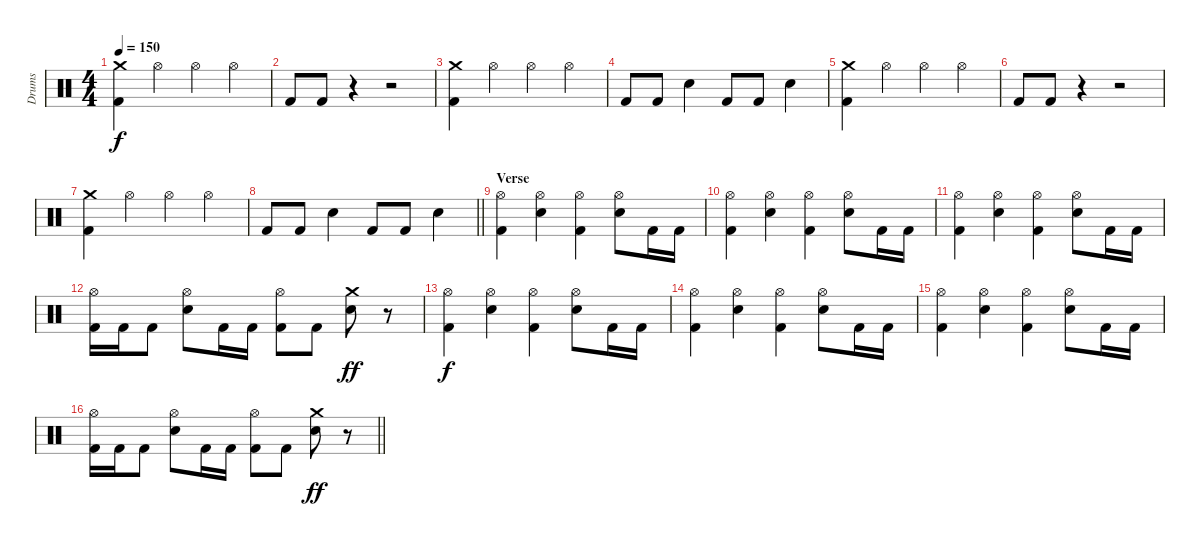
\track ("Drums" "Drums") {instrument percussion}
\staff {score}
\articulation defaults
\ts (4 4)
\tempo 150
\clef neutral
\ks c
("Crash medium (hit)" "Kick (hit) 2").4{dy f} "Hi-Hat (open)".4 "Hi-Hat (open)".4 "Hi-Hat (open)".4 |
"Kick (hit) 2".8 "Kick (hit) 2".8 r.4 r.2 |
("Crash medium (hit)" "Kick (hit) 2").4 "Hi-Hat (open)".4 "Hi-Hat (open)".4 "Hi-Hat (open)".4 |
"Kick (hit) 2".8 "Kick (hit) 2".8 "Electric Snare (hit)".4 "Kick (hit) 2".8 "Kick (hit) 2".8 "Electric Snare (hit)".4 |
("Crash medium (hit)" "Kick (hit) 2").4 "Hi-Hat (open)".4 "Hi-Hat (open)".4 "Hi-Hat (open)".4 |
"Kick (hit) 2".8 "Kick (hit) 2".8 r.4 r.2 |
("Crash medium (hit)" "Kick (hit) 2").4 "Hi-Hat (open)".4 "Hi-Hat (open)".4 "Hi-Hat (open)".4 |
\barLineRight lightlight "Kick (hit) 2".8 "Kick (hit) 2".8 "Electric Snare (hit)".4 "Kick (hit) 2".8 "Kick (hit) 2".8 "Electric Snare (hit)".4
|
\section ("" "Verse")
("Hi-Hat (open)" "Kick (hit) 2").4 ("Hi-Hat (open)" "Electric Snare (hit)").4 ("Hi-Hat (open)" "Kick (hit) 2").4 ("Hi-Hat (open)" "Electric Snare (hit)").8 "Kick (hit) 2".16 "Kick (hit) 2".16 |
("Hi-Hat (open)" "Kick (hit) 2").4 ("Hi-Hat (open)" "Electric Snare (hit)").4 ("Hi-Hat (open)" "Kick (hit) 2").4 ("Hi-Hat (open)" "Electric Snare (hit)").8 "Kick (hit) 2".16 "Kick (hit) 2".16 |
("Hi-Hat (open)" "Kick (hit) 2").4 ("Hi-Hat (open)" "Electric Snare (hit)").4 ("Hi-Hat (open)" "Kick (hit) 2").4 ("Hi-Hat (open)" "Electric Snare (hit)").8 "Kick (hit) 2".16 "Kick (hit) 2".16 |
("Hi-Hat (open)" "Kick (hit) 2").16 "Kick (hit) 2".16 "Kick (hit) 2".8 ("Hi-Hat (open)" "Electric Snare (hit)").8 "Kick (hit) 2".16 "Kick (hit) 2".16 ("Hi-Hat (open)" "Kick (hit) 2").8 "Kick (hit) 2".8 ("Crash medium (hit)" "Electric Snare (hit)").8{dy ff} r.8 |
("Hi-Hat (open)" "Kick (hit) 2").4{dy f} ("Hi-Hat (open)" "Electric Snare (hit)").4 ("Hi-Hat (open)" "Kick (hit) 2").4 ("Hi-Hat (open)" "Electric Snare (hit)").8 "Kick (hit) 2".16 "Kick (hit) 2".16 |
("Hi-Hat (open)" "Kick (hit) 2").4 ("Hi-Hat (open)" "Electric Snare (hit)").4 ("Hi-Hat (open)" "Kick (hit) 2").4 ("Hi-Hat (open)" "Electric Snare (hit)").8 "Kick (hit) 2".16 "Kick (hit) 2".16 |
("Hi-Hat (open)" "Kick (hit) 2").4 ("Hi-Hat (open)" "Electric Snare (hit)").4 ("Hi-Hat (open)" "Kick (hit) 2").4 ("Hi-Hat (open)" "Electric Snare (hit)").8 "Kick (hit) 2".16 "Kick (hit) 2".16 |
\barLineRight lightlight
("Hi-Hat (open)" "Kick (hit) 2").16 "Kick (hit) 2".16 "Kick (hit) 2".8 ("Hi-Hat (open)" "Electric Snare (hit)").8 "Kick (hit) 2".16 "Kick (hit) 2".16 ("Hi-Hat (open)" "Kick (hit) 2").8 "Kick (hit) 2".8 ("Crash medium (hit)" "Electric Snare (hit)").8{dy ff} r.8
